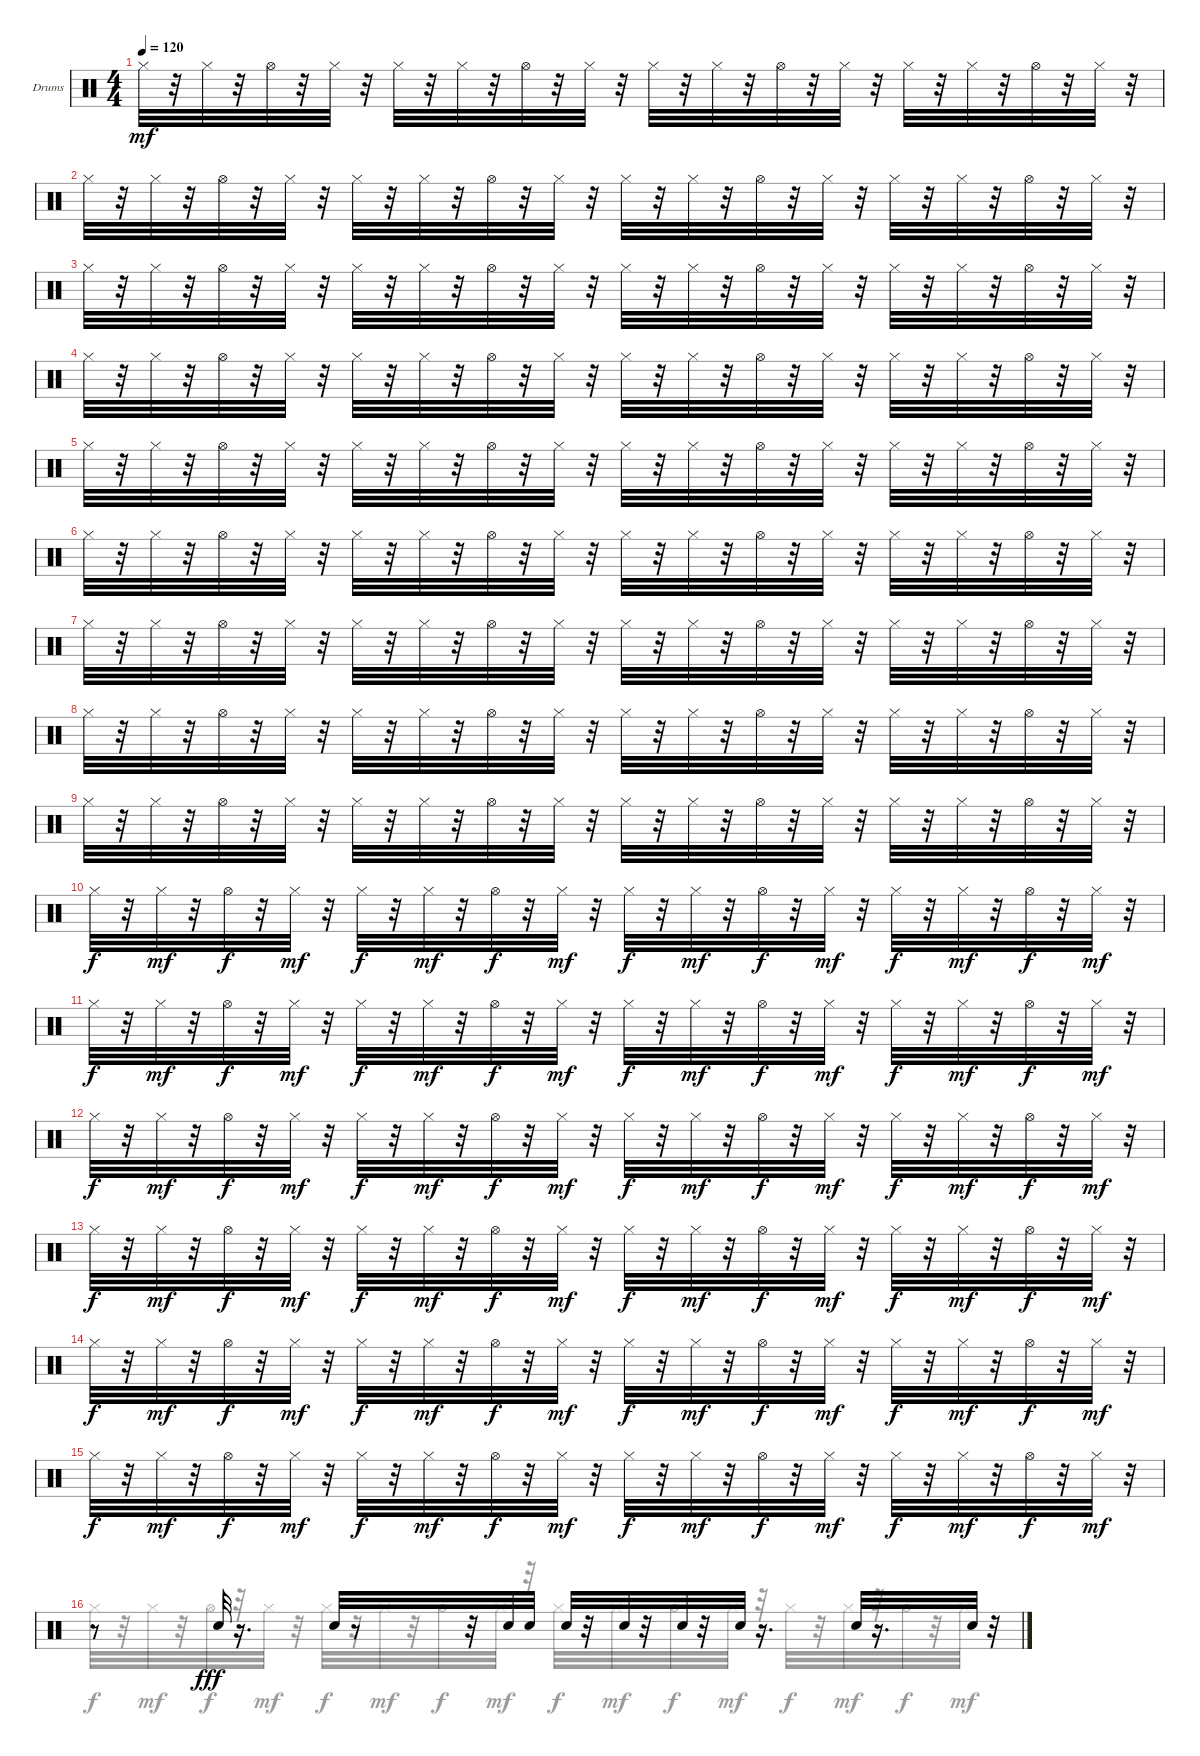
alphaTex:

\defaultSystemsLayout 4
\bracketExtendMode groupsimilarinstruments
\firstSystemTrackNameOrientation horizontal
\otherSystemsTrackNameOrientation horizontal
\track ("Drumkit" "Drums") {instrument percussion}
\staff {score}
\articulation defaults
\voice
\ts (4 4)
\tempo 120
\clef neutral
\ks c "Hi-Hat (closed)".32{dy mf}
r.32 "Hi-Hat (closed)".32 r.32 "Hi-Hat (open)".32 r.32 "Hi-Hat (closed)".32 r.32 "Hi-Hat (closed)".32 r.32 "Hi-Hat (closed)".32 r.32 "Hi-Hat (open)".32 r.32 "Hi-Hat (closed)".32 r.32 "Hi-Hat (closed)".32 r.32 "Hi-Hat (closed)".32 r.32 "Hi-Hat (open)".32 r.32 "Hi-Hat (closed)".32 r.32 "Hi-Hat (closed)".32 r.32 "Hi-Hat (closed)".32 r.32 "Hi-Hat (open)".32 r.32 "Hi-Hat (closed)".32 r.32 |
"Hi-Hat (closed)".32 r.32 "Hi-Hat (closed)".32 r.32 "Hi-Hat (open)".32 r.32 "Hi-Hat (closed)".32 r.32 "Hi-Hat (closed)".32 r.32 "Hi-Hat (closed)".32 r.32 "Hi-Hat (open)".32 r.32 "Hi-Hat (closed)".32 r.32 "Hi-Hat (closed)".32 r.32 "Hi-Hat (closed)".32 r.32 "Hi-Hat (open)".32 r.32 "Hi-Hat (closed)".32 r.32 "Hi-Hat (closed)".32 r.32 "Hi-Hat (closed)".32 r.32 "Hi-Hat (open)".32 r.32 "Hi-Hat (closed)".32 r.32 |
"Hi-Hat (closed)".32 r.32 "Hi-Hat (closed)".32 r.32 "Hi-Hat (open)".32 r.32 "Hi-Hat (closed)".32 r.32 "Hi-Hat (closed)".32 r.32 "Hi-Hat (closed)".32 r.32 "Hi-Hat (open)".32 r.32 "Hi-Hat (closed)".32 r.32 "Hi-Hat (closed)".32 r.32 "Hi-Hat (closed)".32 r.32 "Hi-Hat (open)".32 r.32 "Hi-Hat (closed)".32 r.32 "Hi-Hat (closed)".32 r.32 "Hi-Hat (closed)".32 r.32 "Hi-Hat (open)".32 r.32 "Hi-Hat (closed)".32 r.32 |
"Hi-Hat (closed)".32 r.32 "Hi-Hat (closed)".32 r.32 "Hi-Hat (open)".32 r.32 "Hi-Hat (closed)".32 r.32 "Hi-Hat (closed)".32 r.32 "Hi-Hat (closed)".32 r.32 "Hi-Hat (open)".32 r.32 "Hi-Hat (closed)".32 r.32 "Hi-Hat (closed)".32 r.32 "Hi-Hat (closed)".32 r.32 "Hi-Hat (open)".32 r.32 "Hi-Hat (closed)".32 r.32 "Hi-Hat (closed)".32 r.32 "Hi-Hat (closed)".32 r.32 "Hi-Hat (open)".32 r.32 "Hi-Hat (closed)".32 r.32 |
"Hi-Hat (closed)".32 r.32 "Hi-Hat (closed)".32 r.32 "Hi-Hat (open)".32 r.32 "Hi-Hat (closed)".32 r.32 "Hi-Hat (closed)".32 r.32 "Hi-Hat (closed)".32 r.32 "Hi-Hat (open)".32 r.32 "Hi-Hat (closed)".32 r.32 "Hi-Hat (closed)".32 r.32 "Hi-Hat (closed)".32 r.32 "Hi-Hat (open)".32 r.32 "Hi-Hat (closed)".32 r.32 "Hi-Hat (closed)".32 r.32 "Hi-Hat (closed)".32 r.32 "Hi-Hat (open)".32 r.32 "Hi-Hat (closed)".32 r.32 |
"Hi-Hat (closed)".32 r.32 "Hi-Hat (closed)".32 r.32 "Hi-Hat (open)".32 r.32 "Hi-Hat (closed)".32 r.32 "Hi-Hat (closed)".32 r.32 "Hi-Hat (closed)".32 r.32 "Hi-Hat (open)".32 r.32 "Hi-Hat (closed)".32 r.32 "Hi-Hat (closed)".32 r.32 "Hi-Hat (closed)".32 r.32 "Hi-Hat (open)".32 r.32 "Hi-Hat (closed)".32 r.32 "Hi-Hat (closed)".32 r.32 "Hi-Hat (closed)".32 r.32 "Hi-Hat (open)".32 r.32 "Hi-Hat (closed)".32 r.32 |
"Hi-Hat (closed)".32 r.32 "Hi-Hat (closed)".32 r.32 "Hi-Hat (open)".32 r.32 "Hi-Hat (closed)".32 r.32 "Hi-Hat (closed)".32 r.32 "Hi-Hat (closed)".32 r.32 "Hi-Hat (open)".32 r.32 "Hi-Hat (closed)".32 r.32 "Hi-Hat (closed)".32 r.32 "Hi-Hat (closed)".32 r.32 "Hi-Hat (open)".32 r.32 "Hi-Hat (closed)".32 r.32 "Hi-Hat (closed)".32 r.32 "Hi-Hat (closed)".32 r.32 "Hi-Hat (open)".32 r.32 "Hi-Hat (closed)".32 r.32 |
"Hi-Hat (closed)".32 r.32 "Hi-Hat (closed)".32 r.32 "Hi-Hat (open)".32 r.32 "Hi-Hat (closed)".32 r.32 "Hi-Hat (closed)".32 r.32 "Hi-Hat (closed)".32 r.32 "Hi-Hat (open)".32 r.32 "Hi-Hat (closed)".32 r.32 "Hi-Hat (closed)".32 r.32 "Hi-Hat (closed)".32 r.32 "Hi-Hat (open)".32 r.32 "Hi-Hat (closed)".32 r.32 "Hi-Hat (closed)".32 r.32 "Hi-Hat (closed)".32 r.32 "Hi-Hat (open)".32 r.32 "Hi-Hat (closed)".32 r.32 |
"Hi-Hat (closed)".32 r.32 "Hi-Hat (closed)".32 r.32 "Hi-Hat (open)".32 r.32 "Hi-Hat (closed)".32 r.32 "Hi-Hat (closed)".32 r.32 "Hi-Hat (closed)".32 r.32 "Hi-Hat (open)".32 r.32 "Hi-Hat (closed)".32 r.32 "Hi-Hat (closed)".32 r.32 "Hi-Hat (closed)".32 r.32 "Hi-Hat (open)".32 r.32 "Hi-Hat (closed)".32 r.32 "Hi-Hat (closed)".32 r.32 "Hi-Hat (closed)".32 r.32 "Hi-Hat (open)".32 r.32 "Hi-Hat (closed)".32 r.32 |
"Hi-Hat (closed)".32{dy f} r.32 "Hi-Hat (closed)".32{dy mf} r.32 "Hi-Hat (open)".32{dy f} r.32 "Hi-Hat (closed)".32{dy mf} r.32 "Hi-Hat (closed)".32{dy f} r.32 "Hi-Hat (closed)".32{dy mf} r.32 "Hi-Hat (open)".32{dy f} r.32 "Hi-Hat (closed)".32{dy mf} r.32 "Hi-Hat (closed)".32{dy f} r.32 "Hi-Hat (closed)".32{dy mf} r.32 "Hi-Hat (open)".32{dy f} r.32 "Hi-Hat (closed)".32{dy mf} r.32 "Hi-Hat (closed)".32{dy f} r.32 "Hi-Hat (closed)".32{dy mf} r.32 "Hi-Hat (open)".32{dy f} r.32 "Hi-Hat (closed)".32{dy mf} r.32 |
"Hi-Hat (closed)".32{dy f} r.32 "Hi-Hat (closed)".32{dy mf} r.32 "Hi-Hat (open)".32{dy f} r.32 "Hi-Hat (closed)".32{dy mf} r.32 "Hi-Hat (closed)".32{dy f} r.32 "Hi-Hat (closed)".32{dy mf} r.32 "Hi-Hat (open)".32{dy f} r.32 "Hi-Hat (closed)".32{dy mf} r.32 "Hi-Hat (closed)".32{dy f} r.32 "Hi-Hat (closed)".32{dy mf} r.32 "Hi-Hat (open)".32{dy f} r.32 "Hi-Hat (closed)".32{dy mf} r.32 "Hi-Hat (closed)".32{dy f} r.32 "Hi-Hat (closed)".32{dy mf} r.32 "Hi-Hat (open)".32{dy f} r.32 "Hi-Hat (closed)".32{dy mf} r.32 |
"Hi-Hat (closed)".32{dy f} r.32 "Hi-Hat (closed)".32{dy mf} r.32 "Hi-Hat (open)".32{dy f} r.32 "Hi-Hat (closed)".32{dy mf} r.32 "Hi-Hat (closed)".32{dy f} r.32 "Hi-Hat (closed)".32{dy mf} r.32 "Hi-Hat (open)".32{dy f} r.32 "Hi-Hat (closed)".32{dy mf} r.32 "Hi-Hat (closed)".32{dy f} r.32 "Hi-Hat (closed)".32{dy mf} r.32 "Hi-Hat (open)".32{dy f} r.32 "Hi-Hat (closed)".32{dy mf} r.32 "Hi-Hat (closed)".32{dy f} r.32 "Hi-Hat (closed)".32{dy mf} r.32 "Hi-Hat (open)".32{dy f} r.32 "Hi-Hat (closed)".32{dy mf} r.32 |
"Hi-Hat (closed)".32{dy f} r.32 "Hi-Hat (closed)".32{dy mf} r.32 "Hi-Hat (open)".32{dy f} r.32 "Hi-Hat (closed)".32{dy mf} r.32 "Hi-Hat (closed)".32{dy f} r.32 "Hi-Hat (closed)".32{dy mf} r.32 "Hi-Hat (open)".32{dy f} r.32 "Hi-Hat (closed)".32{dy mf} r.32 "Hi-Hat (closed)".32{dy f} r.32 "Hi-Hat (closed)".32{dy mf} r.32 "Hi-Hat (open)".32{dy f} r.32 "Hi-Hat (closed)".32{dy mf} r.32 "Hi-Hat (closed)".32{dy f} r.32 "Hi-Hat (closed)".32{dy mf} r.32 "Hi-Hat (open)".32{dy f} r.32 "Hi-Hat (closed)".32{dy mf} r.32 |
"Hi-Hat (closed)".32{dy f} r.32 "Hi-Hat (closed)".32{dy mf} r.32 "Hi-Hat (open)".32{dy f} r.32 "Hi-Hat (closed)".32{dy mf} r.32 "Hi-Hat (closed)".32{dy f} r.32 "Hi-Hat (closed)".32{dy mf} r.32 "Hi-Hat (open)".32{dy f} r.32 "Hi-Hat (closed)".32{dy mf} r.32 "Hi-Hat (closed)".32{dy f} r.32 "Hi-Hat (closed)".32{dy mf} r.32 "Hi-Hat (open)".32{dy f} r.32 "Hi-Hat (closed)".32{dy mf} r.32 "Hi-Hat (closed)".32{dy f} r.32 "Hi-Hat (closed)".32{dy mf} r.32 "Hi-Hat (open)".32{dy f} r.32 "Hi-Hat (closed)".32{dy mf} r.32 |
"Hi-Hat (closed)".32{dy f} r.32 "Hi-Hat (closed)".32{dy mf} r.32 "Hi-Hat (open)".32{dy f} r.32 "Hi-Hat (closed)".32{dy mf} r.32 "Hi-Hat (closed)".32{dy f} r.32 "Hi-Hat (closed)".32{dy mf} r.32 "Hi-Hat (open)".32{dy f} r.32 "Hi-Hat (closed)".32{dy mf} r.32 "Hi-Hat (closed)".32{dy f} r.32 "Hi-Hat (closed)".32{dy mf} r.32 "Hi-Hat (open)".32{dy f} r.32 "Hi-Hat (closed)".32{dy mf} r.32 "Hi-Hat (closed)".32{dy f} r.32 "Hi-Hat (closed)".32{dy mf} r.32 "Hi-Hat (open)".32{dy f} r.32 "Hi-Hat (closed)".32{dy mf} r.32 |
r.8 "Snare (hit) 2".32{dy fff} r.16{d} "Snare (hit) 2".32 r.8 r.32 "Snare (hit) 2".32 "Snare (hit) 2".32 "Snare (hit) 2".32 r.32 "Snare (hit) 2".32 r.32 "Snare (hit) 2".32 r.32 "Snare (hit) 2".32 r.16{d} "Snare (hit) 2".32 r.16{d} "Snare (hit) 2".32 r.32
\voice
\clef neutral
\ottava regular
\simile none
\ks c
|
|
|
|
|
|
|
|
|
|
|
|
|
|
|
"Hi-Hat (closed)".32{dy f} r.32 "Hi-Hat (closed)".32{dy mf} r.32 "Hi-Hat (open)".32{dy f} r.32 "Hi-Hat (closed)".32{dy mf} r.32 "Hi-Hat (closed)".32{dy f} r.32 "Hi-Hat (closed)".32{dy mf} r.32 "Hi-Hat (open)".32{dy f} r.32 "Hi-Hat (closed)".32{dy mf} r.32 "Hi-Hat (closed)".32{dy f} r.32 "Hi-Hat (closed)".32{dy mf} r.32 "Hi-Hat (open)".32{dy f} r.32 "Hi-Hat (closed)".32{dy mf} r.32 "Hi-Hat (closed)".32{dy f} r.32 "Hi-Hat (closed)".32{dy mf} r.32 "Hi-Hat (open)".32{dy f} r.32 "Hi-Hat (closed)".32{dy mf} r.32
